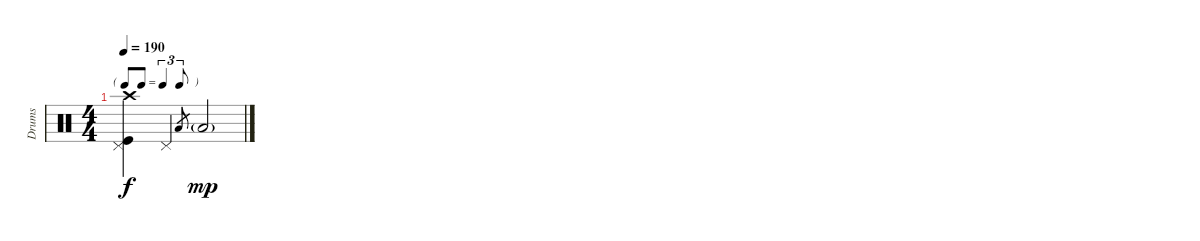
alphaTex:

\track ("Drums" "Drums") {instrument percussion}
\staff {score}
\articulation defaults
\ts (4 4)
\tf triplet8th
\tempo 190
\clef neutral
\ks c
("Crash high (hit)" "Pedal Hi-Hat (hit)" "Kick (hit)").4{dy f} "Pedal Hi-Hat (hit)".4 "Low Tom (hit)".8{gr} "Low Tom (hit)"{g}.2{dy mp}
